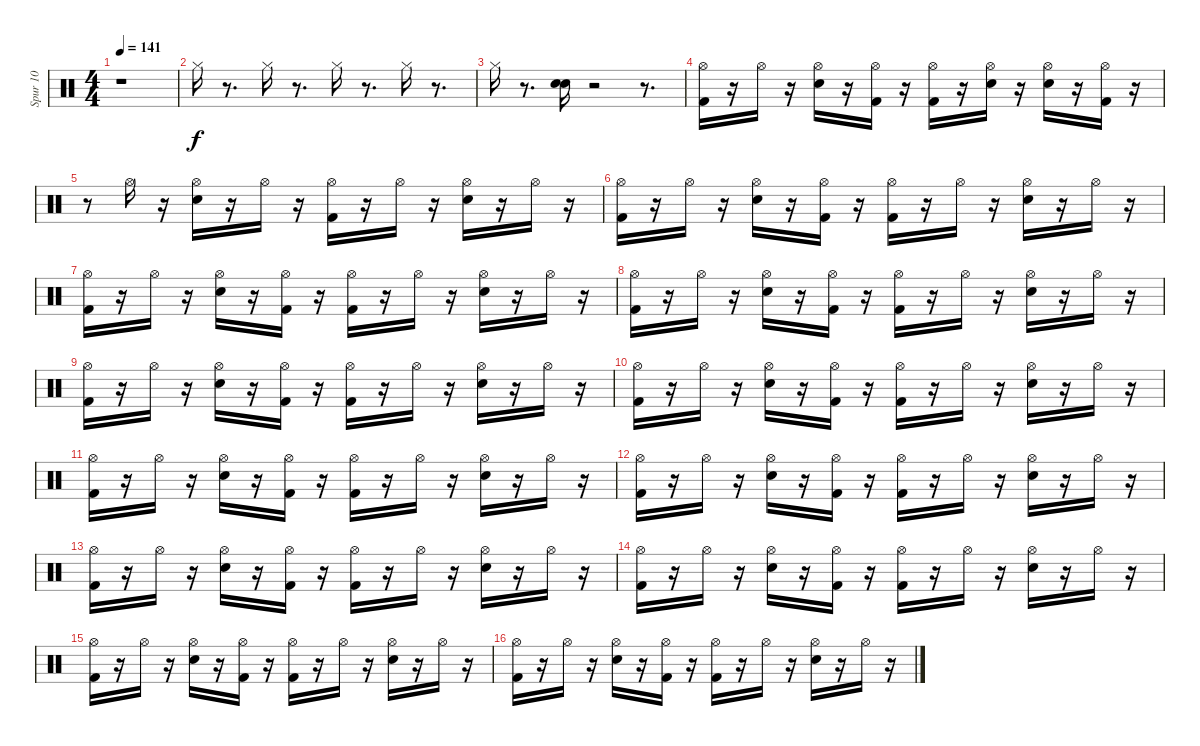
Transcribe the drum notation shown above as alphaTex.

\track ("Spur 10" "Spur 10") {instrument percussion}
\staff {score}
\articulation defaults
\ts (4 4)
\tempo 141
\clef neutral
\ks c
r.1{dy f} |
"Hi-Hat (closed)".16 r.8{d} "Hi-Hat (closed)".16 r.8{d} "Hi-Hat (closed)".16 r.8{d} "Hi-Hat (closed)".16 r.8{d} |
"Hi-Hat (closed)".16 r.8{d} ("Electric Snare (hit)" "Snare (hit) 2").16 r.2 r.8{d} |
("Kick (hit) 2" "Hi-Hat (open)").16 r.16 "Hi-Hat (open)".16 r.16 ("Snare (hit) 2" "Hi-Hat (open)").16 r.16 ("Kick (hit) 2" "Hi-Hat (open)").16 r.16 ("Kick (hit) 2" "Hi-Hat (open)").16 r.16 ("Snare (hit) 2" "Hi-Hat (open)").16 r.16 ("Snare (hit) 2" "Hi-Hat (open)").16 r.16 ("Kick (hit) 2" "Hi-Hat (open)").16 r.16 |
r.8 "Hi-Hat (open)".16 r.16 ("Snare (hit) 2" "Hi-Hat (open)").16 r.16 "Hi-Hat (open)".16 r.16 ("Kick (hit) 2" "Hi-Hat (open)").16 r.16 "Hi-Hat (open)".16 r.16 ("Snare (hit) 2" "Hi-Hat (open)").16 r.16 "Hi-Hat (open)".16 r.16 |
("Kick (hit) 2" "Hi-Hat (open)").16 r.16 "Hi-Hat (open)".16 r.16 ("Snare (hit) 2" "Hi-Hat (open)").16 r.16 ("Kick (hit) 2" "Hi-Hat (open)").16 r.16 ("Kick (hit) 2" "Hi-Hat (open)").16 r.16 "Hi-Hat (open)".16 r.16 ("Snare (hit) 2" "Hi-Hat (open)").16 r.16 "Hi-Hat (open)".16 r.16 |
("Kick (hit) 2" "Hi-Hat (open)").16 r.16 "Hi-Hat (open)".16 r.16 ("Snare (hit) 2" "Hi-Hat (open)").16 r.16 ("Kick (hit) 2" "Hi-Hat (open)").16 r.16 ("Kick (hit) 2" "Hi-Hat (open)").16 r.16 "Hi-Hat (open)".16 r.16 ("Snare (hit) 2" "Hi-Hat (open)").16 r.16 "Hi-Hat (open)".16 r.16 |
("Hi-Hat (open)" "Kick (hit) 2").16 r.16 "Hi-Hat (open)".16 r.16 ("Hi-Hat (open)" "Snare (hit) 2").16 r.16 ("Hi-Hat (open)" "Kick (hit) 2").16 r.16 ("Hi-Hat (open)" "Kick (hit) 2").16 r.16 "Hi-Hat (open)".16 r.16 ("Hi-Hat (open)" "Snare (hit) 2").16 r.16 "Hi-Hat (open)".16 r.16 |
("Hi-Hat (open)" "Kick (hit) 2").16 r.16 "Hi-Hat (open)".16 r.16 ("Hi-Hat (open)" "Snare (hit) 2").16 r.16 ("Hi-Hat (open)" "Kick (hit) 2").16 r.16 ("Hi-Hat (open)" "Kick (hit) 2").16 r.16 "Hi-Hat (open)".16 r.16 ("Hi-Hat (open)" "Snare (hit) 2").16 r.16 "Hi-Hat (open)".16 r.16 |
("Hi-Hat (open)" "Kick (hit) 2").16 r.16 "Hi-Hat (open)".16 r.16 ("Hi-Hat (open)" "Snare (hit) 2").16 r.16 ("Hi-Hat (open)" "Kick (hit) 2").16 r.16 ("Hi-Hat (open)" "Kick (hit) 2").16 r.16 "Hi-Hat (open)".16 r.16 ("Hi-Hat (open)" "Snare (hit) 2").16 r.16 "Hi-Hat (open)".16 r.16 |
("Hi-Hat (open)" "Kick (hit) 2").16 r.16 "Hi-Hat (open)".16 r.16 ("Hi-Hat (open)" "Snare (hit) 2").16 r.16 ("Hi-Hat (open)" "Kick (hit) 2").16 r.16 ("Hi-Hat (open)" "Kick (hit) 2").16 r.16 "Hi-Hat (open)".16 r.16 ("Hi-Hat (open)" "Snare (hit) 2").16 r.16 "Hi-Hat (open)".16 r.16 |
("Kick (hit) 2" "Hi-Hat (open)").16 r.16 "Hi-Hat (open)".16 r.16 ("Snare (hit) 2" "Hi-Hat (open)").16 r.16 ("Kick (hit) 2" "Hi-Hat (open)").16 r.16 ("Kick (hit) 2" "Hi-Hat (open)").16 r.16 "Hi-Hat (open)".16 r.16 ("Snare (hit) 2" "Hi-Hat (open)").16 r.16 "Hi-Hat (open)".16 r.16 |
("Kick (hit) 2" "Hi-Hat (open)").16 r.16 "Hi-Hat (open)".16 r.16 ("Snare (hit) 2" "Hi-Hat (open)").16 r.16 ("Kick (hit) 2" "Hi-Hat (open)").16 r.16 ("Kick (hit) 2" "Hi-Hat (open)").16 r.16 "Hi-Hat (open)".16 r.16 ("Snare (hit) 2" "Hi-Hat (open)").16 r.16 "Hi-Hat (open)".16 r.16 |
("Kick (hit) 2" "Hi-Hat (open)").16 r.16 "Hi-Hat (open)".16 r.16 ("Snare (hit) 2" "Hi-Hat (open)").16 r.16 ("Kick (hit) 2" "Hi-Hat (open)").16 r.16 ("Kick (hit) 2" "Hi-Hat (open)").16 r.16 "Hi-Hat (open)".16 r.16 ("Snare (hit) 2" "Hi-Hat (open)").16 r.16 "Hi-Hat (open)".16 r.16 |
("Kick (hit) 2" "Hi-Hat (open)").16 r.16 "Hi-Hat (open)".16 r.16 ("Snare (hit) 2" "Hi-Hat (open)").16 r.16 ("Kick (hit) 2" "Hi-Hat (open)").16 r.16 ("Kick (hit) 2" "Hi-Hat (open)").16 r.16 "Hi-Hat (open)".16 r.16 ("Snare (hit) 2" "Hi-Hat (open)").16 r.16 "Hi-Hat (open)".16 r.16 |
("Kick (hit) 2" "Hi-Hat (open)").16 r.16 "Hi-Hat (open)".16 r.16 ("Snare (hit) 2" "Hi-Hat (open)").16 r.16 ("Kick (hit) 2" "Hi-Hat (open)").16 r.16 ("Kick (hit) 2" "Hi-Hat (open)").16 r.16 "Hi-Hat (open)".16 r.16 ("Snare (hit) 2" "Hi-Hat (open)").16 r.16 "Hi-Hat (open)".16 r.16
